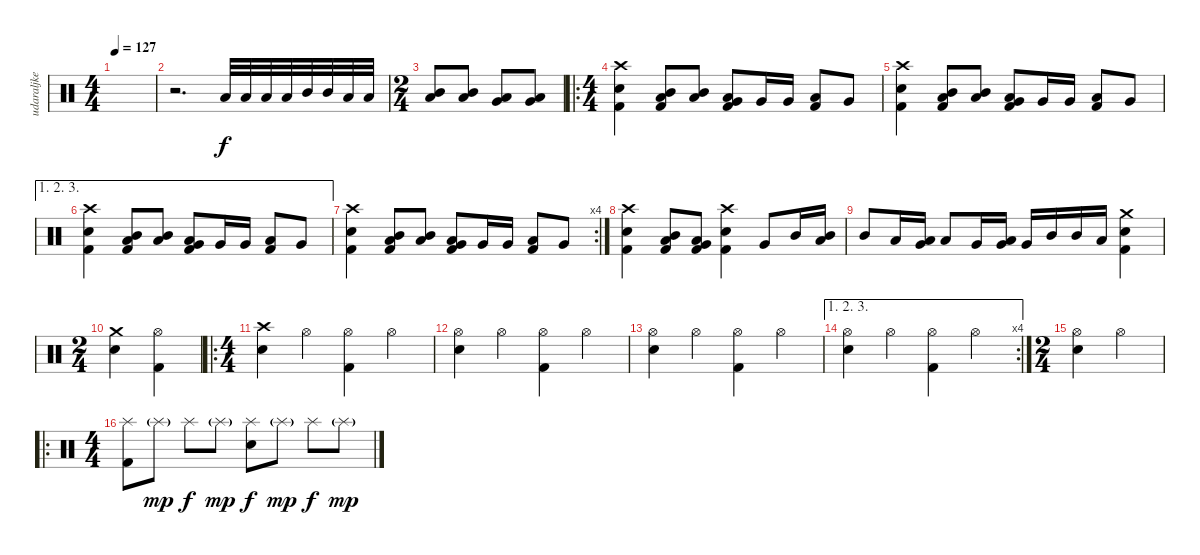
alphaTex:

\track ("udaraljke" "udaraljke") {instrument percussion}
\staff {score}
\articulation defaults
\ts (4 4)
\tempo 127
\clef neutral
\ks c
|
r.2{d} "Low Tom (hit)".32 "Low Tom (hit)".32 "Low Tom (hit)".32 "Low Tom (hit)".32 "Mid Tom (hit)".32 "Mid Tom (hit)".32 "Low Tom (hit)".32 "Low Tom (hit)".32 |
\ts (2 4)
("Mid Tom (hit)" "Low Tom (hit)").8 ("Mid Tom (hit)" "Low Tom (hit)").8 ("Low Tom (hit)" "Very Low Tom (hit)").8 ("Low Tom (hit)" "Very Low Tom (hit)").8 |
\ro
\ts (4 4)
("Crash high (hit)" "Electric Snare (hit)" "Kick (hit) 2").4 ("Mid Tom (hit)" "Low Tom (hit)" "Kick (hit) 2").8 ("Mid Tom (hit)" "Low Tom (hit)").8 ("Low Tom (hit)" "Very Low Tom (hit)" "Kick (hit) 2").8 "Very Low Tom (hit)".16 "Very Low Tom (hit)".16 ("Low Tom (hit)" "Kick (hit) 2").8 "Very Low Tom (hit)".8 |
("Crash high (hit)" "Electric Snare (hit)" "Kick (hit) 2").4 ("Mid Tom (hit)" "Low Tom (hit)" "Kick (hit) 2").8 ("Mid Tom (hit)" "Low Tom (hit)").8 ("Low Tom (hit)" "Very Low Tom (hit)" "Kick (hit) 2").8 "Very Low Tom (hit)".16 "Very Low Tom (hit)".16 ("Low Tom (hit)" "Kick (hit) 2").8 "Very Low Tom (hit)".8 |
\ae (1 2 3)
("Crash high (hit)" "Electric Snare (hit)" "Kick (hit) 2").4 ("Mid Tom (hit)" "Low Tom (hit)" "Kick (hit) 2").8 ("Mid Tom (hit)" "Low Tom (hit)").8 ("Low Tom (hit)" "Very Low Tom (hit)" "Kick (hit) 2").8 "Very Low Tom (hit)".16 "Very Low Tom (hit)".16 ("Low Tom (hit)" "Kick (hit) 2").8 "Very Low Tom (hit)".8 |
\rc 4
("Crash high (hit)" "Electric Snare (hit)" "Kick (hit) 2").4 ("Mid Tom (hit)" "Low Tom (hit)" "Kick (hit) 2").8 ("Mid Tom (hit)" "Low Tom (hit)").8 ("Low Tom (hit)" "Very Low Tom (hit)" "Kick (hit) 2").8 "Very Low Tom (hit)".16 "Very Low Tom (hit)".16 ("Low Tom (hit)" "Kick (hit) 2").8 "Very Low Tom (hit)".8 |
("Crash high (hit)" "Electric Snare (hit)" "Kick (hit) 2").4 ("Mid Tom (hit)" "Low Tom (hit)" "Kick (hit) 2").8 ("Low Tom (hit)" "Very Low Tom (hit)" "Kick (hit) 2").8 ("Crash high (hit)" "Electric Snare (hit)" "Kick (hit) 2").4 "Very Low Tom (hit)".8 "Mid Tom (hit)".16 ("Mid Tom (hit)" "Low Tom (hit)").16 |
"Mid Tom (hit)".8 "Low Tom (hit)".16 ("Low Tom (hit)" "Very Low Tom (hit)").16 "Low Tom (hit)".8 "Very Low Tom (hit)".16 ("Low Tom (hit)" "Very Low Tom (hit)").16 "Very Low Tom (hit)".16 "Mid Tom (hit)".16 "Mid Tom (hit)".16 "Low Tom (hit)".16 ("Crash medium (hit)" "Electric Snare (hit)" "Kick (hit) 2").4 |
\ts (2 4)
("Crash medium (hit)" "Electric Snare (hit)").4 ("Hi-Hat (open)" "Kick (hit) 2").4 |
\ro
\ts (4 4)
("Crash high (hit)" "Electric Snare (hit)").4 "Hi-Hat (open)".4 ("Hi-Hat (open)" "Kick (hit) 2").4 "Hi-Hat (open)".4 |
("Hi-Hat (open)" "Electric Snare (hit)").4 "Hi-Hat (open)".4 ("Hi-Hat (open)" "Kick (hit) 2").4 "Hi-Hat (open)".4 |
("Hi-Hat (open)" "Electric Snare (hit)").4 "Hi-Hat (open)".4 ("Hi-Hat (open)" "Kick (hit) 2").4 "Hi-Hat (open)".4 |
\ae (1 2 3)
\rc 4
("Hi-Hat (open)" "Electric Snare (hit)").4 "Hi-Hat (open)".4 ("Hi-Hat (open)" "Kick (hit) 2").4 "Hi-Hat (open)".4 |
\ts (2 4)
("Hi-Hat (open)" "Electric Snare (hit)").4 "Hi-Hat (open)".4 |
\ro
\ts (4 4)
("Splash (hit)" "Kick (hit) 2").8 "Splash (hit)"{g}.8{dy mp} "Splash (hit)".8{dy f} "Splash (hit)"{g}.8{dy mp} ("Splash (hit)" "Electric Snare (hit)").8{dy f} "Splash (hit)"{g}.8{dy mp} "Splash (hit)".8{dy f} "Splash (hit)"{g}.8{dy mp}
